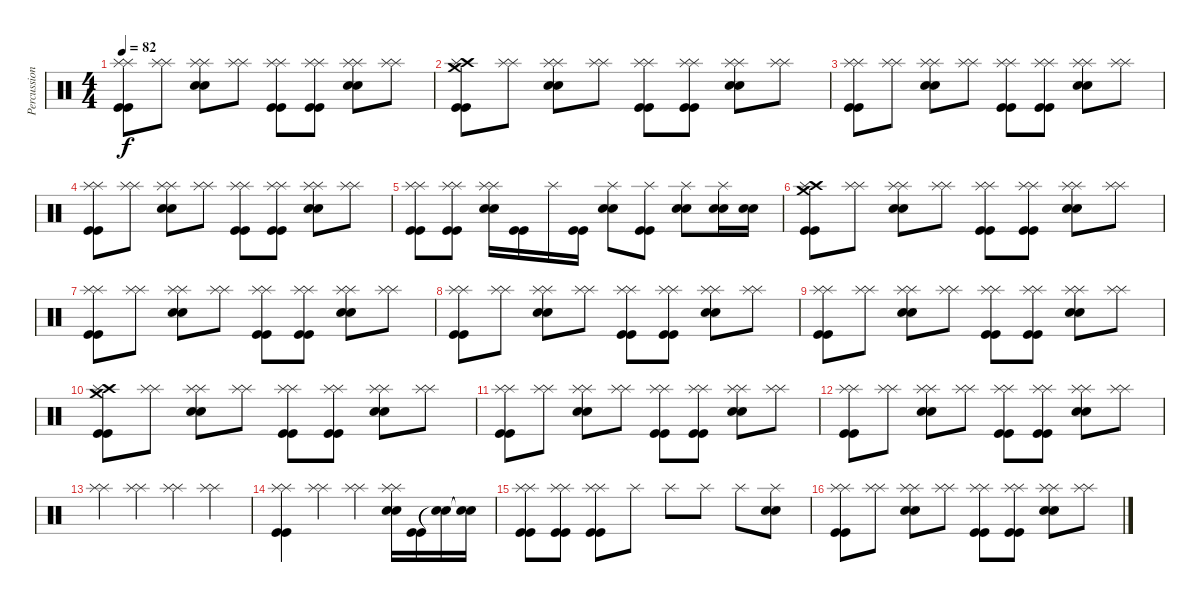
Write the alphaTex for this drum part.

\track ("Percussions" "Percussion") {instrument percussion}
\staff {score}
\articulation defaults
\ts (4 4)
\tempo 82
\clef neutral
\ks c
("Splash (hit)" "Splash (hit)" "Kick (hit)" "Kick (hit)").8{dy f} ("Splash (hit)" "Splash (hit)").8 ("Splash (hit)" "Splash (hit)" "Electric Snare (hit)" "Electric Snare (hit)").8 ("Splash (hit)" "Splash (hit)").8 ("Splash (hit)" "Splash (hit)" "Kick (hit)" "Kick (hit)").8 ("Splash (hit)" "Splash (hit)" "Kick (hit)" "Kick (hit)").8 ("Splash (hit)" "Splash (hit)" "Electric Snare (hit)" "Electric Snare (hit)").8 ("Splash (hit)" "Splash (hit)").8 |
("Crash high (hit)" "Crash medium (hit)" "Splash (hit)" "Kick (hit)" "Kick (hit)").8 ("Splash (hit)" "Splash (hit)").8 ("Splash (hit)" "Splash (hit)" "Electric Snare (hit)" "Electric Snare (hit)").8 ("Splash (hit)" "Splash (hit)").8 ("Splash (hit)" "Splash (hit)" "Kick (hit)" "Kick (hit)").8 ("Splash (hit)" "Splash (hit)" "Kick (hit)" "Kick (hit)").8 ("Splash (hit)" "Splash (hit)" "Electric Snare (hit)" "Electric Snare (hit)").8 ("Splash (hit)" "Splash (hit)").8 |
("Splash (hit)" "Splash (hit)" "Kick (hit)" "Kick (hit)").8 ("Splash (hit)" "Splash (hit)").8 ("Splash (hit)" "Splash (hit)" "Electric Snare (hit)" "Electric Snare (hit)").8 ("Splash (hit)" "Splash (hit)").8 ("Splash (hit)" "Splash (hit)" "Kick (hit)" "Kick (hit)").8 ("Splash (hit)" "Splash (hit)" "Kick (hit)" "Kick (hit)").8 ("Splash (hit)" "Splash (hit)" "Electric Snare (hit)" "Electric Snare (hit)").8 ("Splash (hit)" "Splash (hit)").8 |
("Splash (hit)" "Splash (hit)" "Kick (hit)" "Kick (hit)").8 ("Splash (hit)" "Splash (hit)").8 ("Splash (hit)" "Splash (hit)" "Electric Snare (hit)" "Electric Snare (hit)").8 ("Splash (hit)" "Splash (hit)").8 ("Splash (hit)" "Splash (hit)" "Kick (hit)" "Kick (hit)").8 ("Splash (hit)" "Splash (hit)" "Kick (hit)" "Kick (hit)").8 ("Splash (hit)" "Splash (hit)" "Electric Snare (hit)" "Electric Snare (hit)").8 ("Splash (hit)" "Splash (hit)").8 |
("Splash (hit)" "Splash (hit)" "Kick (hit)" "Kick (hit)").8 ("Splash (hit)" "Splash (hit)" "Kick (hit)" "Kick (hit)").8 ("Splash (hit)" "Splash (hit)" "Electric Snare (hit)" "Electric Snare (hit)").16 ("Kick (hit)" "Kick (hit)").16 "Splash (hit)".16 ("Kick (hit)" "Kick (hit)").16 ("Splash (hit)" "Electric Snare (hit)" "Electric Snare (hit)").8 ("Splash (hit)" "Kick (hit)" "Kick (hit)").8 ("Splash (hit)" "Electric Snare (hit)" "Electric Snare (hit)").8 ("Splash (hit)" "Electric Snare (hit)" "Electric Snare (hit)").16 ("Electric Snare (hit)" "Electric Snare (hit)").16 |
("Crash high (hit)" "Crash medium (hit)" "Splash (hit)" "Kick (hit)" "Kick (hit)").8 ("Splash (hit)" "Splash (hit)").8 ("Splash (hit)" "Splash (hit)" "Electric Snare (hit)" "Electric Snare (hit)").8 ("Splash (hit)" "Splash (hit)").8 ("Splash (hit)" "Splash (hit)" "Kick (hit)" "Kick (hit)").8 ("Splash (hit)" "Splash (hit)" "Kick (hit)" "Kick (hit)").8 ("Splash (hit)" "Splash (hit)" "Electric Snare (hit)" "Electric Snare (hit)").8 ("Splash (hit)" "Splash (hit)").8 |
("Splash (hit)" "Splash (hit)" "Kick (hit)" "Kick (hit)").8 ("Splash (hit)" "Splash (hit)").8 ("Splash (hit)" "Splash (hit)" "Electric Snare (hit)" "Electric Snare (hit)").8 ("Splash (hit)" "Splash (hit)").8 ("Splash (hit)" "Splash (hit)" "Kick (hit)" "Kick (hit)").8 ("Splash (hit)" "Splash (hit)" "Kick (hit)" "Kick (hit)").8 ("Splash (hit)" "Splash (hit)" "Electric Snare (hit)" "Electric Snare (hit)").8 ("Splash (hit)" "Splash (hit)").8 |
("Splash (hit)" "Splash (hit)" "Kick (hit)" "Kick (hit)").8 ("Splash (hit)" "Splash (hit)").8 ("Splash (hit)" "Splash (hit)" "Electric Snare (hit)" "Electric Snare (hit)").8 ("Splash (hit)" "Splash (hit)").8 ("Splash (hit)" "Splash (hit)" "Kick (hit)" "Kick (hit)").8 ("Splash (hit)" "Splash (hit)" "Kick (hit)" "Kick (hit)").8 ("Splash (hit)" "Splash (hit)" "Electric Snare (hit)" "Electric Snare (hit)").8 ("Splash (hit)" "Splash (hit)").8 |
("Splash (hit)" "Splash (hit)" "Kick (hit)" "Kick (hit)").8 ("Splash (hit)" "Splash (hit)").8 ("Splash (hit)" "Splash (hit)" "Electric Snare (hit)" "Electric Snare (hit)").8 ("Splash (hit)" "Splash (hit)").8 ("Splash (hit)" "Splash (hit)" "Kick (hit)" "Kick (hit)").8 ("Splash (hit)" "Splash (hit)" "Kick (hit)" "Kick (hit)").8 ("Splash (hit)" "Splash (hit)" "Electric Snare (hit)" "Electric Snare (hit)").8 ("Splash (hit)" "Splash (hit)").8 |
("Crash high (hit)" "Crash medium (hit)" "Splash (hit)" "Kick (hit)" "Kick (hit)").8 ("Splash (hit)" "Splash (hit)").8 ("Splash (hit)" "Splash (hit)" "Electric Snare (hit)" "Electric Snare (hit)").8 ("Splash (hit)" "Splash (hit)").8 ("Splash (hit)" "Splash (hit)" "Kick (hit)" "Kick (hit)").8 ("Splash (hit)" "Splash (hit)" "Kick (hit)" "Kick (hit)").8 ("Splash (hit)" "Splash (hit)" "Electric Snare (hit)" "Electric Snare (hit)").8 ("Splash (hit)" "Splash (hit)").8 |
("Splash (hit)" "Splash (hit)" "Kick (hit)" "Kick (hit)").8 ("Splash (hit)" "Splash (hit)").8 ("Splash (hit)" "Splash (hit)" "Electric Snare (hit)" "Electric Snare (hit)").8 ("Splash (hit)" "Splash (hit)").8 ("Splash (hit)" "Splash (hit)" "Kick (hit)" "Kick (hit)").8 ("Splash (hit)" "Splash (hit)" "Kick (hit)" "Kick (hit)").8 ("Splash (hit)" "Splash (hit)" "Electric Snare (hit)" "Electric Snare (hit)").8 ("Splash (hit)" "Splash (hit)").8 |
("Splash (hit)" "Splash (hit)" "Kick (hit)" "Kick (hit)").8 ("Splash (hit)" "Splash (hit)").8 ("Splash (hit)" "Splash (hit)" "Electric Snare (hit)" "Electric Snare (hit)").8 ("Splash (hit)" "Splash (hit)").8 ("Splash (hit)" "Splash (hit)" "Kick (hit)" "Kick (hit)").8 ("Splash (hit)" "Splash (hit)" "Kick (hit)" "Kick (hit)").8 ("Splash (hit)" "Splash (hit)" "Electric Snare (hit)" "Electric Snare (hit)").8 ("Splash (hit)" "Splash (hit)").8 |
("Splash (hit)" "Splash (hit)").4 ("Splash (hit)" "Splash (hit)").4 ("Splash (hit)" "Splash (hit)").4 ("Splash (hit)" "Splash (hit)").4 |
("Splash (hit)" "Splash (hit)" "Kick (hit)" "Kick (hit)").4 ("Splash (hit)" "Splash (hit)").4 ("Splash (hit)" "Splash (hit)").4 ("Splash (hit)" "Splash (hit)" "Electric Snare (hit)" "Electric Snare (hit)").16 ("Kick (hit)" "Kick (hit)").16 ("Snare (hit)"{t} "Snare (hit)"{t}).16 ("Snare (hit)"{t} "Snare (hit)"{t}).16 |
("Splash (hit)" "Splash (hit)" "Kick (hit)" "Kick (hit)").8 ("Splash (hit)" "Splash (hit)" "Kick (hit)" "Kick (hit)").8 ("Splash (hit)" "Splash (hit)" "Kick (hit)" "Kick (hit)").8 "Splash (hit)".8 "Splash (hit)".8 "Splash (hit)".8 "Splash (hit)".8 ("Splash (hit)" "Electric Snare (hit)" "Electric Snare (hit)").8 |
("Splash (hit)" "Splash (hit)" "Kick (hit)" "Kick (hit)").8 ("Splash (hit)" "Splash (hit)").8 ("Splash (hit)" "Splash (hit)" "Electric Snare (hit)" "Electric Snare (hit)").8 ("Splash (hit)" "Splash (hit)").8 ("Splash (hit)" "Splash (hit)" "Kick (hit)" "Kick (hit)").8 ("Splash (hit)" "Splash (hit)" "Kick (hit)" "Kick (hit)").8 ("Splash (hit)" "Splash (hit)" "Electric Snare (hit)" "Electric Snare (hit)").8 ("Splash (hit)" "Splash (hit)").8
